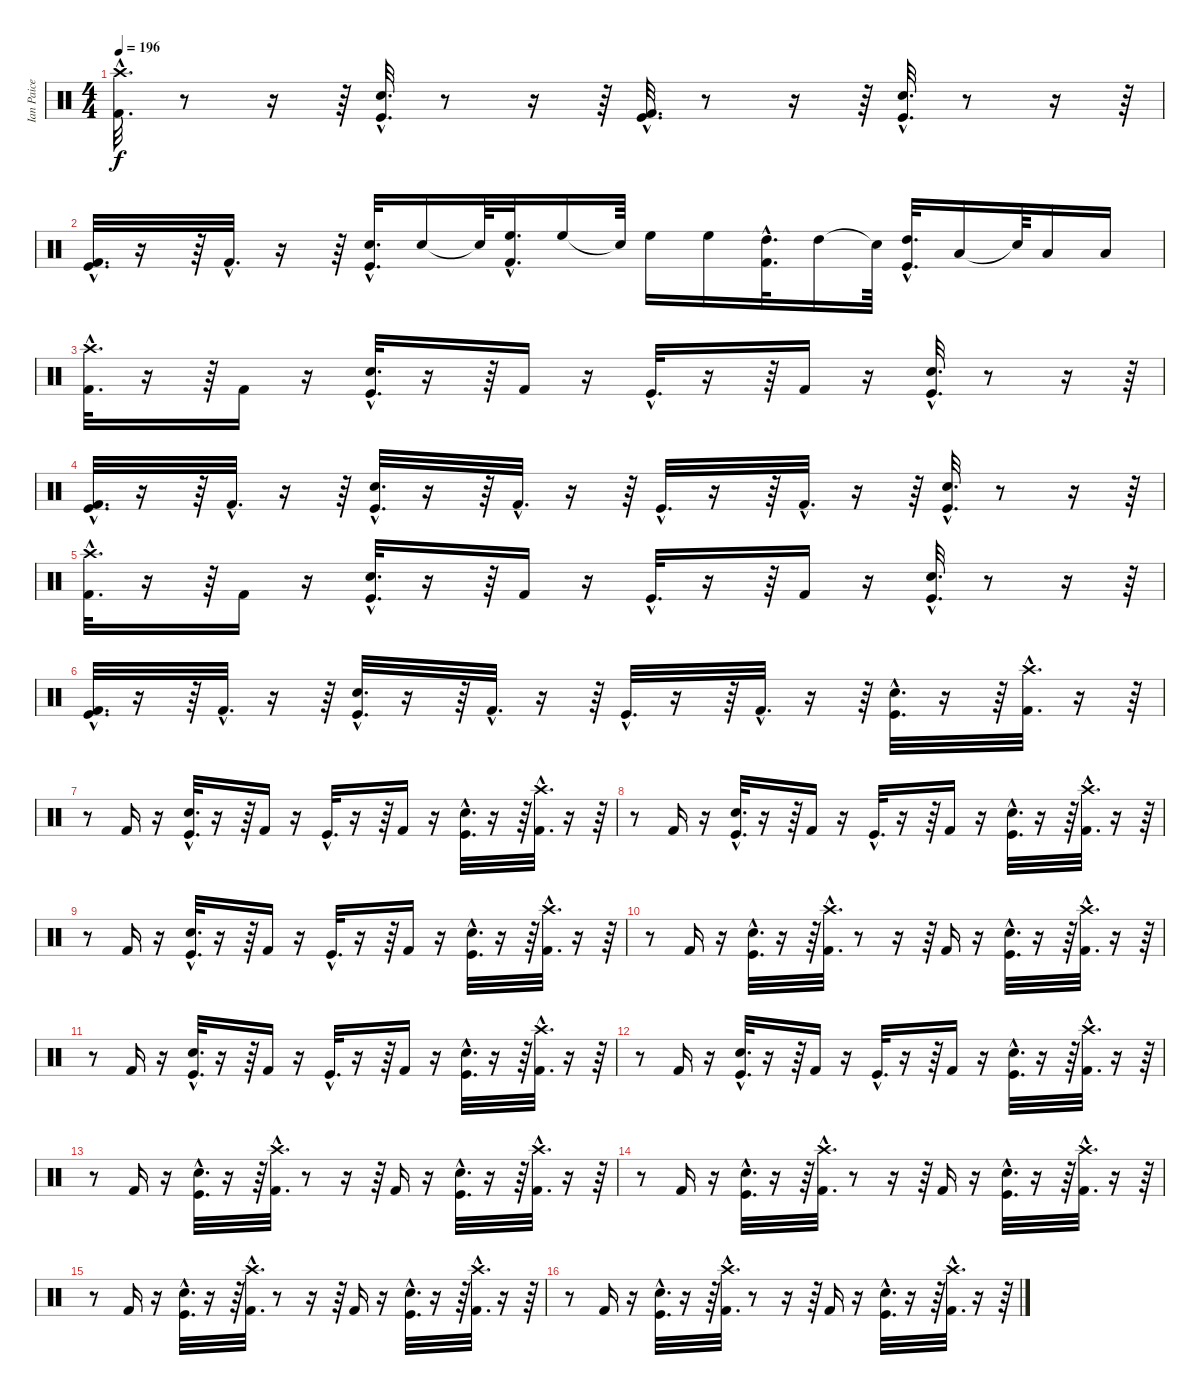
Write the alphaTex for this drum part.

\track ("Ian Paice" "Ian Paice") {instrument percussion}
\staff {score}
\articulation defaults
\ts (4 4)
\tempo 196
\clef neutral
\ks c
("Kick (hit) 2"{hac} "Crash high (hit)"{hac}).32{d dy f} r.8 r.16 r.64 ("Kick (hit)"{hac} "Snare (hit) 2"{hac}).32{d} r.8 r.16 r.64 ("Kick (hit)"{hac} "Kick (hit) 2"{hac}).32{d} r.8 r.16 r.64 ("Kick (hit)"{hac} "Snare (hit) 2"{hac}).32{d} r.8 r.16 r.64 |
("Kick (hit)"{hac} "Kick (hit) 2"{hac}).32{d} r.16 r.64 "Kick (hit) 2"{hac}.32{d} r.16 r.64 ("Snare (hit) 2"{hac} "Kick (hit)"{hac}).32{d} "Snare (hit) 2".16 "Snare (hit)"{t}.64 ("High Floor Tom (hit)"{hac} "Kick (hit) 2"{hac}).32{d} "High Floor Tom (hit)".16 "Snare (hit)"{t}.64 "High Floor Tom (hit)".16 "High Floor Tom (hit)".16 ("High Tom (hit)"{hac} "Kick (hit) 2"{hac}).32{d} "High Tom (hit)".16 "Snare (hit)"{t}.64 ("Kick (hit)"{hac} "High Tom (hit)"{hac}).32{d} "Low Tom (hit)".16 "Snare (hit)"{t}.64 "Low Tom (hit)".16 "Low Floor Tom (hit)".16 |
("Kick (hit) 2"{hac} "Crash high (hit)"{hac}).32{d} r.16 r.64 "Kick (hit) 2".16 r.16 ("Kick (hit)"{hac} "Snare (hit) 2"{hac}).32{d} r.16 r.64 "Kick (hit) 2".16 r.16 "Kick (hit)"{hac}.32{d} r.16 r.64 "Kick (hit) 2".16 r.16 ("Kick (hit)"{hac} "Snare (hit) 2"{hac}).32{d} r.8 r.16 r.64 |
("Kick (hit)"{hac} "Kick (hit) 2"{hac}).32{d} r.16 r.64 "Kick (hit) 2"{hac}.32{d} r.16 r.64 ("Snare (hit) 2"{hac} "Kick (hit)"{hac}).32{d} r.16 r.64 "Kick (hit) 2"{hac}.32{d} r.16 r.64 "Kick (hit)"{hac}.32{d} r.16 r.64 "Kick (hit) 2"{hac}.32{d} r.16 r.64 ("Snare (hit) 2"{hac} "Kick (hit)"{hac}).32{d} r.8 r.16 r.64 |
("Kick (hit) 2"{hac} "Crash high (hit)"{hac}).32{d} r.16 r.64 "Kick (hit) 2".16 r.16 ("Kick (hit)"{hac} "Snare (hit) 2"{hac}).32{d} r.16 r.64 "Kick (hit) 2".16 r.16 "Kick (hit)"{hac}.32{d} r.16 r.64 "Kick (hit) 2".16 r.16 ("Kick (hit)"{hac} "Snare (hit) 2"{hac}).32{d} r.8 r.16 r.64 |
("Kick (hit)"{hac} "Kick (hit) 2"{hac}).32{d} r.16 r.64 "Kick (hit) 2"{hac}.32{d} r.16 r.64 ("Snare (hit) 2"{hac} "Kick (hit)"{hac}).32{d} r.16 r.64 "Kick (hit) 2"{hac}.32{d} r.16 r.64 "Kick (hit)"{hac}.32{d} r.16 r.64 "Kick (hit) 2"{hac}.32{d} r.16 r.64 ("Snare (hit) 2"{hac} "Kick (hit)"{hac}).32{d} r.16 r.64 ("Kick (hit) 2"{hac} "Crash high (hit)"{hac}).32{d} r.16 r.64 |
r.8 "Kick (hit) 2".16 r.16 ("Kick (hit)"{hac} "Snare (hit) 2"{hac}).32{d} r.16 r.64 "Kick (hit) 2".16 r.16 "Kick (hit)"{hac}.32{d} r.16 r.64 "Kick (hit) 2".16 r.16 ("Kick (hit)"{hac} "Snare (hit) 2"{hac}).32{d} r.16 r.64 ("Kick (hit) 2"{hac} "Crash high (hit)"{hac}).32{d} r.16 r.64 |
r.8 "Kick (hit) 2".16 r.16 ("Kick (hit)"{hac} "Snare (hit) 2"{hac}).32{d} r.16 r.64 "Kick (hit) 2".16 r.16 "Kick (hit)"{hac}.32{d} r.16 r.64 "Kick (hit) 2".16 r.16 ("Kick (hit)"{hac} "Snare (hit) 2"{hac}).32{d} r.16 r.64 ("Kick (hit) 2"{hac} "Crash high (hit)"{hac}).32{d} r.16 r.64 |
r.8 "Kick (hit) 2".16 r.16 ("Kick (hit)"{hac} "Snare (hit) 2"{hac}).32{d} r.16 r.64 "Kick (hit) 2".16 r.16 "Kick (hit)"{hac}.32{d} r.16 r.64 "Kick (hit) 2".16 r.16 ("Kick (hit)"{hac} "Snare (hit) 2"{hac}).32{d} r.16 r.64 ("Kick (hit) 2"{hac} "Crash high (hit)"{hac}).32{d} r.16 r.64 |
r.8 "Kick (hit) 2".16 r.16 ("Kick (hit)"{hac} "Snare (hit) 2"{hac}).32{d} r.16 r.64 ("Kick (hit) 2"{hac} "Crash high (hit)"{hac}).32{d} r.8 r.16 r.64 "Kick (hit) 2".16 r.16 ("Kick (hit)"{hac} "Snare (hit) 2"{hac}).32{d} r.16 r.64 ("Kick (hit) 2"{hac} "Crash high (hit)"{hac}).32{d} r.16 r.64 |
r.8 "Kick (hit) 2".16 r.16 ("Kick (hit)"{hac} "Snare (hit) 2"{hac}).32{d} r.16 r.64 "Kick (hit) 2".16 r.16 "Kick (hit)"{hac}.32{d} r.16 r.64 "Kick (hit) 2".16 r.16 ("Kick (hit)"{hac} "Snare (hit) 2"{hac}).32{d} r.16 r.64 ("Kick (hit) 2"{hac} "Crash high (hit)"{hac}).32{d} r.16 r.64 |
r.8 "Kick (hit) 2".16 r.16 ("Kick (hit)"{hac} "Snare (hit) 2"{hac}).32{d} r.16 r.64 "Kick (hit) 2".16 r.16 "Kick (hit)"{hac}.32{d} r.16 r.64 "Kick (hit) 2".16 r.16 ("Kick (hit)"{hac} "Snare (hit) 2"{hac}).32{d} r.16 r.64 ("Kick (hit) 2"{hac} "Crash high (hit)"{hac}).32{d} r.16 r.64 |
r.8 "Kick (hit) 2".16 r.16 ("Kick (hit)"{hac} "Snare (hit) 2"{hac}).32{d} r.16 r.64 ("Kick (hit) 2"{hac} "Crash high (hit)"{hac}).32{d} r.8 r.16 r.64 "Kick (hit) 2".16 r.16 ("Kick (hit)"{hac} "Snare (hit) 2"{hac}).32{d} r.16 r.64 ("Kick (hit) 2"{hac} "Crash high (hit)"{hac}).32{d} r.16 r.64 |
r.8 "Kick (hit) 2".16 r.16 ("Kick (hit)"{hac} "Snare (hit) 2"{hac}).32{d} r.16 r.64 ("Kick (hit) 2"{hac} "Crash high (hit)"{hac}).32{d} r.8 r.16 r.64 "Kick (hit) 2".16 r.16 ("Kick (hit)"{hac} "Snare (hit) 2"{hac}).32{d} r.16 r.64 ("Kick (hit) 2"{hac} "Crash high (hit)"{hac}).32{d} r.16 r.64 |
r.8 "Kick (hit) 2".16 r.16 ("Kick (hit)"{hac} "Snare (hit) 2"{hac}).32{d} r.16 r.64 ("Kick (hit) 2"{hac} "Crash high (hit)"{hac}).32{d} r.8 r.16 r.64 "Kick (hit) 2".16 r.16 ("Kick (hit)"{hac} "Snare (hit) 2"{hac}).32{d} r.16 r.64 ("Kick (hit) 2"{hac} "Crash high (hit)"{hac}).32{d} r.16 r.64 |
r.8 "Kick (hit) 2".16 r.16 ("Kick (hit)"{hac} "Snare (hit) 2"{hac}).32{d} r.16 r.64 ("Kick (hit) 2"{hac} "Crash high (hit)"{hac}).32{d} r.8 r.16 r.64 "Kick (hit) 2".16 r.16 ("Kick (hit)"{hac} "Snare (hit) 2"{hac}).32{d} r.16 r.64 ("Kick (hit) 2"{hac} "Crash high (hit)"{hac}).32{d} r.16 r.64
